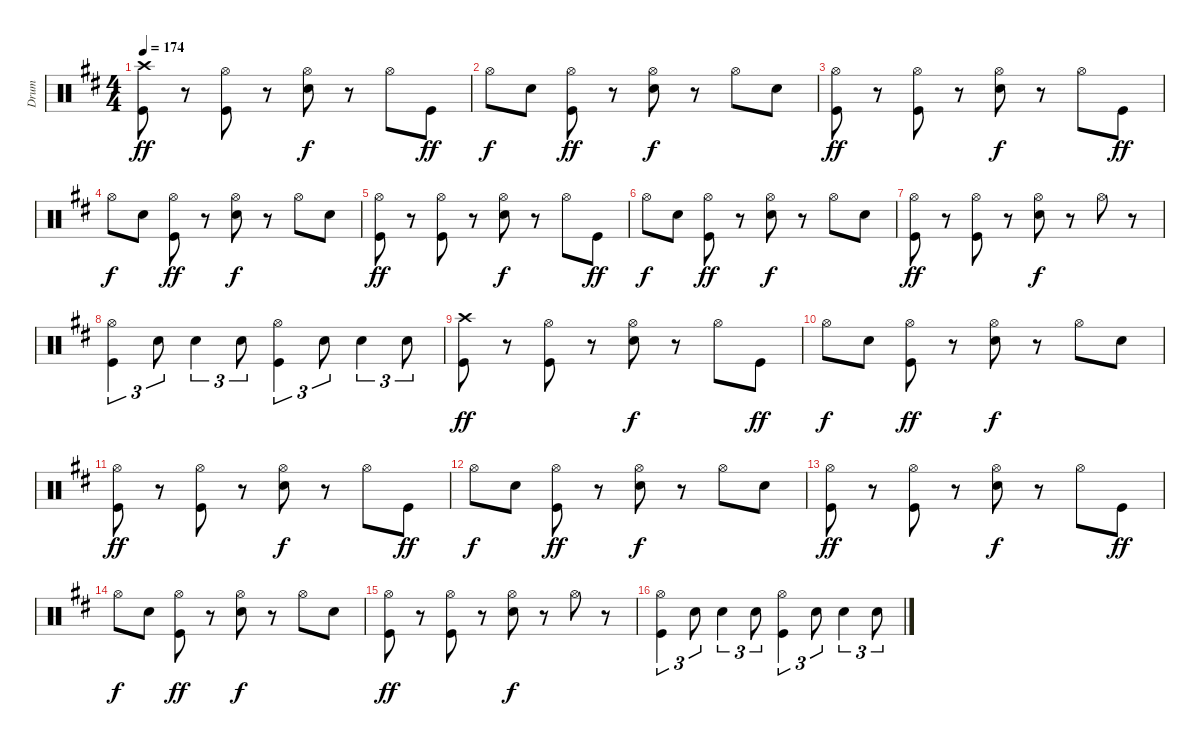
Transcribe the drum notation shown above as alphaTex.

\track ("Drum" "Drum") {instrument percussion}
\staff {score}
\articulation defaults
\ts (4 4)
\tempo 174
\clef neutral
\ks d
("Crash high (hit)" "Kick (hit)").8{dy ff} r.8 ("Hi-Hat (open)" "Kick (hit)").8 r.8 ("Hi-Hat (open)" "Snare (hit) 2").8{dy f} r.8 "Hi-Hat (open)".8 "Kick (hit)".8{dy ff} |
"Hi-Hat (open)".8{dy f} "Snare (hit) 2".8 ("Hi-Hat (open)" "Kick (hit)").8{dy ff} r.8 ("Hi-Hat (open)" "Snare (hit) 2").8{dy f} r.8 "Hi-Hat (open)".8 "Snare (hit) 2".8 |
("Hi-Hat (open)" "Kick (hit)").8{dy ff} r.8 ("Hi-Hat (open)" "Kick (hit)").8 r.8 ("Hi-Hat (open)" "Snare (hit) 2").8{dy f} r.8 "Hi-Hat (open)".8 "Kick (hit)".8{dy ff} |
"Hi-Hat (open)".8{dy f} "Snare (hit) 2".8 ("Hi-Hat (open)" "Kick (hit)").8{dy ff} r.8 ("Hi-Hat (open)" "Snare (hit) 2").8{dy f} r.8 "Hi-Hat (open)".8 "Snare (hit) 2".8 |
("Hi-Hat (open)" "Kick (hit)").8{dy ff} r.8 ("Hi-Hat (open)" "Kick (hit)").8 r.8 ("Hi-Hat (open)" "Snare (hit) 2").8{dy f} r.8 "Hi-Hat (open)".8 "Kick (hit)".8{dy ff} |
"Hi-Hat (open)".8{dy f} "Snare (hit) 2".8 ("Hi-Hat (open)" "Kick (hit)").8{dy ff} r.8 ("Hi-Hat (open)" "Snare (hit) 2").8{dy f} r.8 "Hi-Hat (open)".8 "Snare (hit) 2".8 |
("Hi-Hat (open)" "Kick (hit)").8{dy ff} r.8 ("Hi-Hat (open)" "Kick (hit)").8 r.8 ("Hi-Hat (open)" "Snare (hit) 2").8{dy f} r.8 "Hi-Hat (open)".8 r.8 |
("Hi-Hat (open)" "Kick (hit)").4{tu (3 2)} "Snare (hit) 2".8{tu (3 2)} "Snare (hit) 2".4{tu (3 2)} "Snare (hit) 2".8{tu (3 2)} ("Hi-Hat (open)" "Kick (hit)").4{tu (3 2)} "Snare (hit) 2".8{tu (3 2)} "Snare (hit) 2".4{tu (3 2)} "Snare (hit) 2".8{tu (3 2)} |
("Crash high (hit)" "Kick (hit)").8{dy ff} r.8 ("Hi-Hat (open)" "Kick (hit)").8 r.8 ("Hi-Hat (open)" "Snare (hit) 2").8{dy f} r.8 "Hi-Hat (open)".8 "Kick (hit)".8{dy ff} |
"Hi-Hat (open)".8{dy f} "Snare (hit) 2".8 ("Hi-Hat (open)" "Kick (hit)").8{dy ff} r.8 ("Hi-Hat (open)" "Snare (hit) 2").8{dy f} r.8 "Hi-Hat (open)".8 "Snare (hit) 2".8 |
("Hi-Hat (open)" "Kick (hit)").8{dy ff} r.8 ("Hi-Hat (open)" "Kick (hit)").8 r.8 ("Hi-Hat (open)" "Snare (hit) 2").8{dy f} r.8 "Hi-Hat (open)".8 "Kick (hit)".8{dy ff} |
"Hi-Hat (open)".8{dy f} "Snare (hit) 2".8 ("Hi-Hat (open)" "Kick (hit)").8{dy ff} r.8 ("Hi-Hat (open)" "Snare (hit) 2").8{dy f} r.8 "Hi-Hat (open)".8 "Snare (hit) 2".8 |
("Hi-Hat (open)" "Kick (hit)").8{dy ff} r.8 ("Hi-Hat (open)" "Kick (hit)").8 r.8 ("Hi-Hat (open)" "Snare (hit) 2").8{dy f} r.8 "Hi-Hat (open)".8 "Kick (hit)".8{dy ff} |
"Hi-Hat (open)".8{dy f} "Snare (hit) 2".8 ("Hi-Hat (open)" "Kick (hit)").8{dy ff} r.8 ("Hi-Hat (open)" "Snare (hit) 2").8{dy f} r.8 "Hi-Hat (open)".8 "Snare (hit) 2".8 |
("Hi-Hat (open)" "Kick (hit)").8{dy ff} r.8 ("Hi-Hat (open)" "Kick (hit)").8 r.8 ("Hi-Hat (open)" "Snare (hit) 2").8{dy f} r.8 "Hi-Hat (open)".8 r.8 |
("Hi-Hat (open)" "Kick (hit)").4{tu (3 2)} "Snare (hit) 2".8{tu (3 2)} "Snare (hit) 2".4{tu (3 2)} "Snare (hit) 2".8{tu (3 2)} ("Hi-Hat (open)" "Kick (hit)").4{tu (3 2)} "Snare (hit) 2".8{tu (3 2)} "Snare (hit) 2".4{tu (3 2)} "Snare (hit) 2".8{tu (3 2)}
